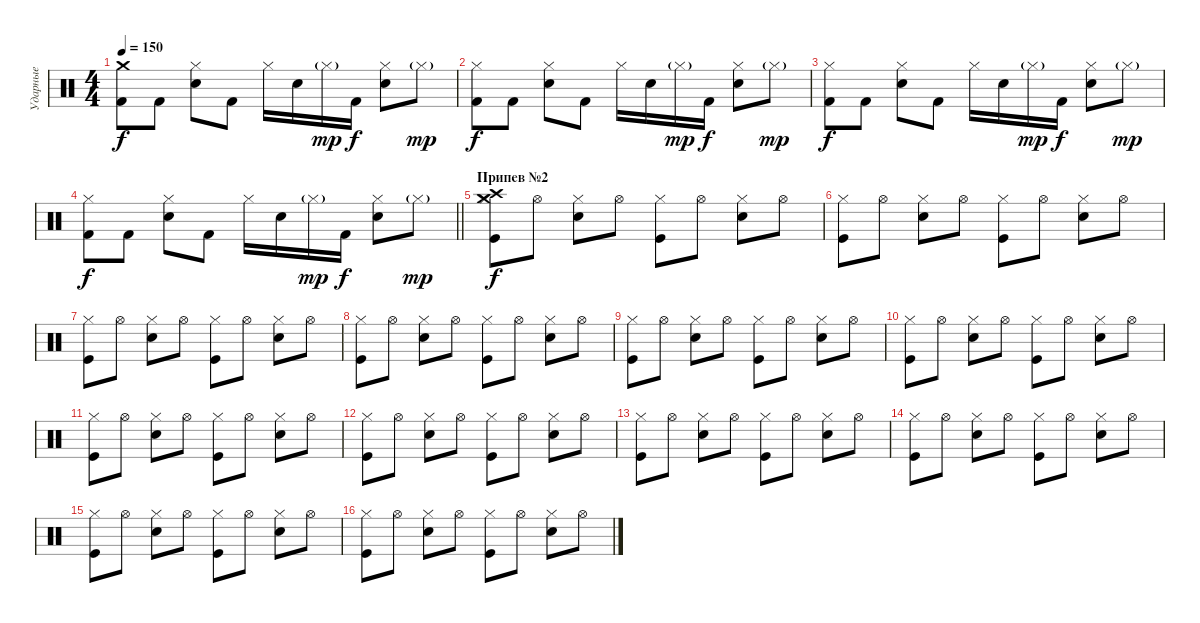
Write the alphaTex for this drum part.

\track ("Ударные" "Ударные") {instrument percussion}
\staff {score}
\articulation defaults
\ts (4 4)
\tempo 150
\clef neutral
\ks c
("Crash medium (hit)" "Kick (hit) 2").8{dy f} "Kick (hit) 2".8 ("Snare (hit) 2" "Hi-Hat (closed)").8 "Kick (hit) 2".8 "Hi-Hat (closed)".16 "Snare (hit) 2".16 "Hi-Hat (closed)"{g}.16{dy mp} "Kick (hit) 2".16{dy f} ("Snare (hit) 2" "Hi-Hat (closed)").8 "Hi-Hat (closed)"{g}.8{dy mp} |
("Hi-Hat (closed)" "Kick (hit) 2").8{dy f} "Kick (hit) 2".8 ("Snare (hit) 2" "Hi-Hat (closed)").8 "Kick (hit) 2".8 "Hi-Hat (closed)".16 "Snare (hit) 2".16 "Hi-Hat (closed)"{g}.16{dy mp} "Kick (hit) 2".16{dy f} ("Snare (hit) 2" "Hi-Hat (closed)").8 "Hi-Hat (closed)"{g}.8{dy mp} |
("Hi-Hat (closed)" "Kick (hit) 2").8{dy f} "Kick (hit) 2".8 ("Snare (hit) 2" "Hi-Hat (closed)").8 "Kick (hit) 2".8 "Hi-Hat (closed)".16 "Snare (hit) 2".16 "Hi-Hat (closed)"{g}.16{dy mp} "Kick (hit) 2".16{dy f} ("Snare (hit) 2" "Hi-Hat (closed)").8 "Hi-Hat (closed)"{g}.8{dy mp} |
\barLineRight lightlight
("Hi-Hat (closed)" "Kick (hit) 2").8{dy f} "Kick (hit) 2".8 ("Snare (hit) 2" "Hi-Hat (closed)").8 "Kick (hit) 2".8 "Hi-Hat (closed)".16 "Snare (hit) 2".16 "Hi-Hat (closed)"{g}.16{dy mp} "Kick (hit) 2".16{dy f} ("Snare (hit) 2" "Hi-Hat (closed)").8 "Hi-Hat (closed)"{g}.8{dy mp} |
\section ("" "Припев №2")
("Kick (hit)" "Hi-Hat (closed)" "Crash medium (hit)" "Crash high (hit)").8{dy f} "Hi-Hat (open)".8 ("Electric Snare (hit)" "Hi-Hat (closed)").8 "Hi-Hat (open)".8 ("Kick (hit)" "Hi-Hat (closed)").8 "Hi-Hat (open)".8 ("Electric Snare (hit)" "Hi-Hat (closed)").8 "Hi-Hat (open)".8 |
("Kick (hit)" "Hi-Hat (closed)").8 "Hi-Hat (open)".8 ("Electric Snare (hit)" "Hi-Hat (closed)").8 "Hi-Hat (open)".8 ("Kick (hit)" "Hi-Hat (closed)").8 "Hi-Hat (open)".8 ("Electric Snare (hit)" "Hi-Hat (closed)").8 "Hi-Hat (open)".8 |
("Kick (hit)" "Hi-Hat (closed)").8 "Hi-Hat (open)".8 ("Electric Snare (hit)" "Hi-Hat (closed)").8 "Hi-Hat (open)".8 ("Kick (hit)" "Hi-Hat (closed)").8 "Hi-Hat (open)".8 ("Electric Snare (hit)" "Hi-Hat (closed)").8 "Hi-Hat (open)".8 |
("Kick (hit)" "Hi-Hat (closed)").8 "Hi-Hat (open)".8 ("Electric Snare (hit)" "Hi-Hat (closed)").8 "Hi-Hat (open)".8 ("Kick (hit)" "Hi-Hat (closed)").8 "Hi-Hat (open)".8 ("Electric Snare (hit)" "Hi-Hat (closed)").8 "Hi-Hat (open)".8 |
("Kick (hit)" "Hi-Hat (closed)").8 "Hi-Hat (open)".8 ("Electric Snare (hit)" "Hi-Hat (closed)").8 "Hi-Hat (open)".8 ("Kick (hit)" "Hi-Hat (closed)").8 "Hi-Hat (open)".8 ("Electric Snare (hit)" "Hi-Hat (closed)").8 "Hi-Hat (open)".8 |
("Kick (hit)" "Hi-Hat (closed)").8 "Hi-Hat (open)".8 ("Electric Snare (hit)" "Hi-Hat (closed)").8 "Hi-Hat (open)".8 ("Kick (hit)" "Hi-Hat (closed)").8 "Hi-Hat (open)".8 ("Electric Snare (hit)" "Hi-Hat (closed)").8 "Hi-Hat (open)".8 |
("Kick (hit)" "Hi-Hat (closed)").8 "Hi-Hat (open)".8 ("Electric Snare (hit)" "Hi-Hat (closed)").8 "Hi-Hat (open)".8 ("Kick (hit)" "Hi-Hat (closed)").8 "Hi-Hat (open)".8 ("Electric Snare (hit)" "Hi-Hat (closed)").8 "Hi-Hat (open)".8 |
("Kick (hit)" "Hi-Hat (closed)").8 "Hi-Hat (open)".8 ("Electric Snare (hit)" "Hi-Hat (closed)").8 "Hi-Hat (open)".8 ("Kick (hit)" "Hi-Hat (closed)").8 "Hi-Hat (open)".8 ("Electric Snare (hit)" "Hi-Hat (closed)").8 "Hi-Hat (open)".8 |
("Kick (hit)" "Hi-Hat (closed)").8 "Hi-Hat (open)".8 ("Electric Snare (hit)" "Hi-Hat (closed)").8 "Hi-Hat (open)".8 ("Kick (hit)" "Hi-Hat (closed)").8 "Hi-Hat (open)".8 ("Electric Snare (hit)" "Hi-Hat (closed)").8 "Hi-Hat (open)".8 |
("Kick (hit)" "Hi-Hat (closed)").8 "Hi-Hat (open)".8 ("Electric Snare (hit)" "Hi-Hat (closed)").8 "Hi-Hat (open)".8 ("Kick (hit)" "Hi-Hat (closed)").8 "Hi-Hat (open)".8 ("Electric Snare (hit)" "Hi-Hat (closed)").8 "Hi-Hat (open)".8 |
("Kick (hit)" "Hi-Hat (closed)").8 "Hi-Hat (open)".8 ("Electric Snare (hit)" "Hi-Hat (closed)").8 "Hi-Hat (open)".8 ("Kick (hit)" "Hi-Hat (closed)").8 "Hi-Hat (open)".8 ("Electric Snare (hit)" "Hi-Hat (closed)").8 "Hi-Hat (open)".8 |
("Kick (hit)" "Hi-Hat (closed)").8 "Hi-Hat (open)".8 ("Electric Snare (hit)" "Hi-Hat (closed)").8 "Hi-Hat (open)".8 ("Kick (hit)" "Hi-Hat (closed)").8 "Hi-Hat (open)".8 ("Electric Snare (hit)" "Hi-Hat (closed)").8 "Hi-Hat (open)".8
